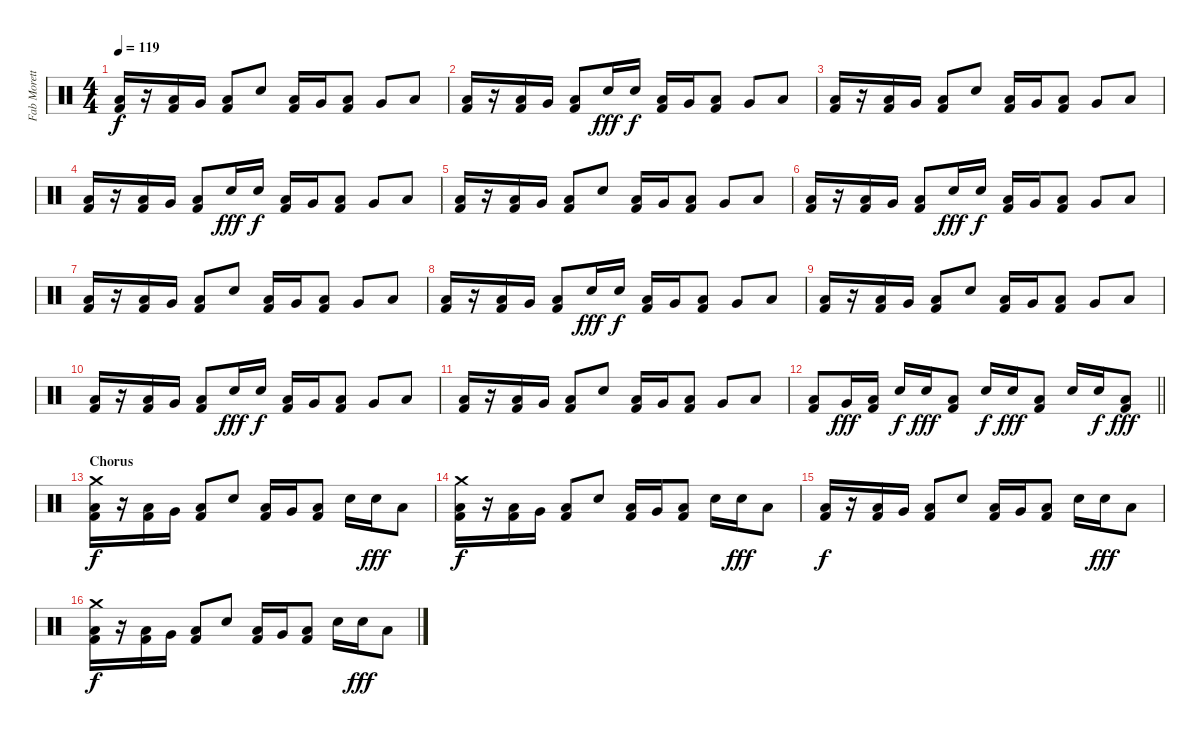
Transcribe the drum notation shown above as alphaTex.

\track ("Fab Moretti" "Fab Morett") {instrument percussion}
\staff {score}
\articulation defaults
\ts (4 4)
\tempo 119
\clef neutral
\ks c
("Low Floor Tom (hit)" "Kick (hit) 2").16{dy f} r.16 ("Low Floor Tom (hit)" "Kick (hit) 2").16 "Very Low Tom (hit)".16 ("Low Floor Tom (hit)" "Kick (hit) 2").8 "Electric Snare (hit)".8 ("Low Floor Tom (hit)" "Kick (hit) 2").16 "Very Low Tom (hit)".16 ("Low Floor Tom (hit)" "Kick (hit) 2").8 "Very Low Tom (hit)".8 "Low Floor Tom (hit)".8 |
("Low Floor Tom (hit)" "Kick (hit) 2").16 r.16 ("Low Floor Tom (hit)" "Kick (hit) 2").16 "Very Low Tom (hit)".16 ("Low Floor Tom (hit)" "Kick (hit) 2").8 "Electric Snare (hit)".16{dy fff} "Electric Snare (hit)".16{dy f} ("Low Floor Tom (hit)" "Kick (hit) 2").16 "Very Low Tom (hit)".16 ("Low Floor Tom (hit)" "Kick (hit) 2").8 "Very Low Tom (hit)".8 "Low Floor Tom (hit)".8 |
("Low Floor Tom (hit)" "Kick (hit) 2").16 r.16 ("Low Floor Tom (hit)" "Kick (hit) 2").16 "Very Low Tom (hit)".16 ("Low Floor Tom (hit)" "Kick (hit) 2").8 "Electric Snare (hit)".8 ("Low Floor Tom (hit)" "Kick (hit) 2").16 "Very Low Tom (hit)".16 ("Low Floor Tom (hit)" "Kick (hit) 2").8 "Very Low Tom (hit)".8 "Low Floor Tom (hit)".8 |
("Low Floor Tom (hit)" "Kick (hit) 2").16 r.16 ("Low Floor Tom (hit)" "Kick (hit) 2").16 "Very Low Tom (hit)".16 ("Low Floor Tom (hit)" "Kick (hit) 2").8 "Electric Snare (hit)".16{dy fff} "Electric Snare (hit)".16{dy f} ("Low Floor Tom (hit)" "Kick (hit) 2").16 "Very Low Tom (hit)".16 ("Low Floor Tom (hit)" "Kick (hit) 2").8 "Very Low Tom (hit)".8 "Low Floor Tom (hit)".8 |
("Low Floor Tom (hit)" "Kick (hit) 2").16 r.16 ("Low Floor Tom (hit)" "Kick (hit) 2").16 "Very Low Tom (hit)".16 ("Low Floor Tom (hit)" "Kick (hit) 2").8 "Electric Snare (hit)".8 ("Low Floor Tom (hit)" "Kick (hit) 2").16 "Very Low Tom (hit)".16 ("Low Floor Tom (hit)" "Kick (hit) 2").8 "Very Low Tom (hit)".8 "Low Floor Tom (hit)".8 |
("Low Floor Tom (hit)" "Kick (hit) 2").16 r.16 ("Low Floor Tom (hit)" "Kick (hit) 2").16 "Very Low Tom (hit)".16 ("Low Floor Tom (hit)" "Kick (hit) 2").8 "Electric Snare (hit)".16{dy fff} "Electric Snare (hit)".16{dy f} ("Low Floor Tom (hit)" "Kick (hit) 2").16 "Very Low Tom (hit)".16 ("Low Floor Tom (hit)" "Kick (hit) 2").8 "Very Low Tom (hit)".8 "Low Floor Tom (hit)".8 |
("Low Floor Tom (hit)" "Kick (hit) 2").16 r.16 ("Low Floor Tom (hit)" "Kick (hit) 2").16 "Very Low Tom (hit)".16 ("Low Floor Tom (hit)" "Kick (hit) 2").8 "Electric Snare (hit)".8 ("Low Floor Tom (hit)" "Kick (hit) 2").16 "Very Low Tom (hit)".16 ("Low Floor Tom (hit)" "Kick (hit) 2").8 "Very Low Tom (hit)".8 "Low Floor Tom (hit)".8 |
("Low Floor Tom (hit)" "Kick (hit) 2").16 r.16 ("Low Floor Tom (hit)" "Kick (hit) 2").16 "Very Low Tom (hit)".16 ("Low Floor Tom (hit)" "Kick (hit) 2").8 "Electric Snare (hit)".16{dy fff} "Electric Snare (hit)".16{dy f} ("Low Floor Tom (hit)" "Kick (hit) 2").16 "Very Low Tom (hit)".16 ("Low Floor Tom (hit)" "Kick (hit) 2").8 "Very Low Tom (hit)".8 "Low Floor Tom (hit)".8 |
("Low Floor Tom (hit)" "Kick (hit) 2").16 r.16 ("Low Floor Tom (hit)" "Kick (hit) 2").16 "Very Low Tom (hit)".16 ("Low Floor Tom (hit)" "Kick (hit) 2").8 "Electric Snare (hit)".8 ("Low Floor Tom (hit)" "Kick (hit) 2").16 "Very Low Tom (hit)".16 ("Low Floor Tom (hit)" "Kick (hit) 2").8 "Very Low Tom (hit)".8 "Low Floor Tom (hit)".8 |
("Low Floor Tom (hit)" "Kick (hit) 2").16 r.16 ("Low Floor Tom (hit)" "Kick (hit) 2").16 "Very Low Tom (hit)".16 ("Low Floor Tom (hit)" "Kick (hit) 2").8 "Electric Snare (hit)".16{dy fff} "Electric Snare (hit)".16{dy f} ("Low Floor Tom (hit)" "Kick (hit) 2").16 "Very Low Tom (hit)".16 ("Low Floor Tom (hit)" "Kick (hit) 2").8 "Very Low Tom (hit)".8 "Low Floor Tom (hit)".8 |
("Low Floor Tom (hit)" "Kick (hit) 2").16 r.16 ("Low Floor Tom (hit)" "Kick (hit) 2").16 "Very Low Tom (hit)".16 ("Low Floor Tom (hit)" "Kick (hit) 2").8 "Electric Snare (hit)".8 ("Low Floor Tom (hit)" "Kick (hit) 2").16 "Very Low Tom (hit)".16 ("Low Floor Tom (hit)" "Kick (hit) 2").8 "Very Low Tom (hit)".8 "Low Floor Tom (hit)".8 |
\barLineRight lightlight
("Low Floor Tom (hit)" "Kick (hit) 2").8 "Very Low Tom (hit)".16{dy fff} ("Low Floor Tom (hit)" "Kick (hit) 2").16 "Electric Snare (hit)".16{dy f} "Electric Snare (hit)".16{dy fff} ("Low Floor Tom (hit)" "Kick (hit) 2").8 "Electric Snare (hit)".16{dy f} "Electric Snare (hit)".16{dy fff} ("Low Floor Tom (hit)" "Kick (hit) 2").8 "Electric Snare (hit)".16 "Electric Snare (hit)".16{dy f} ("Low Floor Tom (hit)" "Kick (hit) 2").8{dy fff} |
\section ("" "Chorus")
("Crash medium (hit)" "Low Floor Tom (hit)" "Kick (hit) 2").16{dy f} r.16 ("Low Floor Tom (hit)" "Kick (hit) 2").16 "Very Low Tom (hit)".16 ("Low Floor Tom (hit)" "Kick (hit) 2").8 "Electric Snare (hit)".8 ("Low Floor Tom (hit)" "Kick (hit) 2").16 "Very Low Tom (hit)".16 ("Low Floor Tom (hit)" "Kick (hit) 2").8 "Electric Snare (hit)".16 "Electric Snare (hit)".16{dy fff} "Low Floor Tom (hit)".8 |
("Crash medium (hit)" "Low Floor Tom (hit)" "Kick (hit) 2").16{dy f} r.16 ("Low Floor Tom (hit)" "Kick (hit) 2").16 "Very Low Tom (hit)".16 ("Low Floor Tom (hit)" "Kick (hit) 2").8 "Electric Snare (hit)".8 ("Low Floor Tom (hit)" "Kick (hit) 2").16 "Very Low Tom (hit)".16 ("Low Floor Tom (hit)" "Kick (hit) 2").8 "Electric Snare (hit)".16 "Electric Snare (hit)".16{dy fff} "Low Floor Tom (hit)".8 |
("Low Floor Tom (hit)" "Kick (hit) 2").16{dy f} r.16 ("Low Floor Tom (hit)" "Kick (hit) 2").16 "Very Low Tom (hit)".16 ("Low Floor Tom (hit)" "Kick (hit) 2").8 "Electric Snare (hit)".8 ("Low Floor Tom (hit)" "Kick (hit) 2").16 "Very Low Tom (hit)".16 ("Low Floor Tom (hit)" "Kick (hit) 2").8 "Electric Snare (hit)".16 "Electric Snare (hit)".16{dy fff} "Low Floor Tom (hit)".8 |
("Crash medium (hit)" "Low Floor Tom (hit)" "Kick (hit) 2").16{dy f} r.16 ("Low Floor Tom (hit)" "Kick (hit) 2").16 "Very Low Tom (hit)".16 ("Low Floor Tom (hit)" "Kick (hit) 2").8 "Electric Snare (hit)".8 ("Low Floor Tom (hit)" "Kick (hit) 2").16 "Very Low Tom (hit)".16 ("Low Floor Tom (hit)" "Kick (hit) 2").8 "Electric Snare (hit)".16 "Electric Snare (hit)".16{dy fff} "Low Floor Tom (hit)".8
